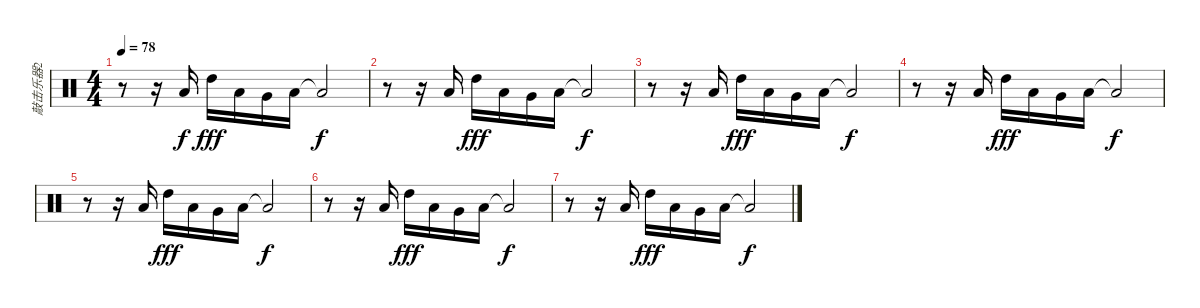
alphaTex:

\track ("敲击乐器2" "敲击乐器2") {instrument percussion}
\staff {score}
\articulation defaults
\ts (4 4)
\tempo 78
\clef neutral
\ks c
r.8{dy f} r.16 "Low Tom (hit)".16 "High Tom (hit)".16{dy fff} "Low Tom (hit)".16 "Very Low Tom (hit)".16 "Low Floor Tom (hit)".16 "Low Tom (hit)"{t}.2{dy f} |
r.8 r.16 "Low Tom (hit)".16 "High Tom (hit)".16{dy fff} "Low Tom (hit)".16 "Very Low Tom (hit)".16 "Low Floor Tom (hit)".16 "Low Tom (hit)"{t}.2{dy f} |
r.8 r.16 "Low Tom (hit)".16 "High Tom (hit)".16{dy fff} "Low Tom (hit)".16 "Very Low Tom (hit)".16 "Low Floor Tom (hit)".16 "Low Tom (hit)"{t}.2{dy f} |
r.8 r.16 "Low Tom (hit)".16 "High Tom (hit)".16{dy fff} "Low Tom (hit)".16 "Very Low Tom (hit)".16 "Low Floor Tom (hit)".16 "Low Tom (hit)"{t}.2{dy f} |
r.8 r.16 "Low Tom (hit)".16 "High Tom (hit)".16{dy fff} "Low Tom (hit)".16 "Very Low Tom (hit)".16 "Low Floor Tom (hit)".16 "Low Tom (hit)"{t}.2{dy f} |
r.8 r.16 "Low Tom (hit)".16 "High Tom (hit)".16{dy fff} "Low Tom (hit)".16 "Very Low Tom (hit)".16 "Low Floor Tom (hit)".16 "Low Tom (hit)"{t}.2{dy f} |
r.8 r.16 "Low Tom (hit)".16 "High Tom (hit)".16{dy fff} "Low Tom (hit)".16 "Very Low Tom (hit)".16 "Low Floor Tom (hit)".16 "Low Tom (hit)"{t}.2{dy f}
